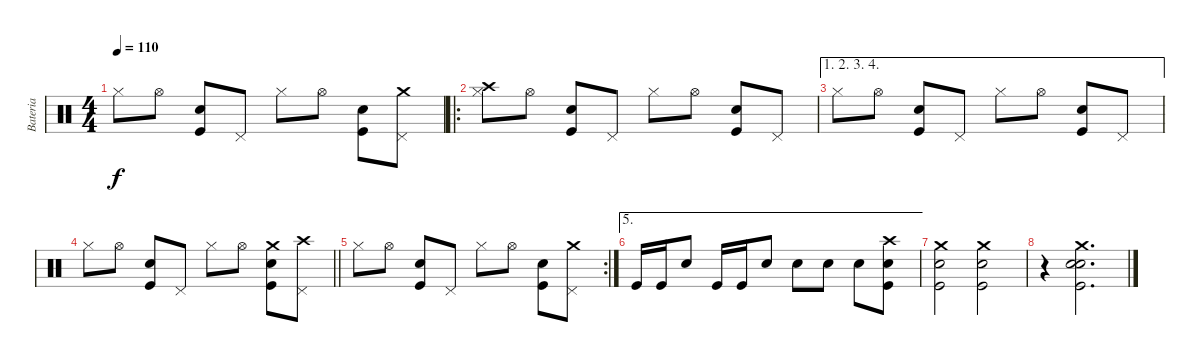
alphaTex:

\track ("Bateria" "Bateria") {instrument percussion}
\staff {score}
\articulation defaults
\ts (4 4)
\tempo 110
\clef neutral
\ks c "Hi-Hat (closed)".8{dy f} "Hi-Hat (open)".8
("Electric Snare (hit)" "Kick (hit)").8 "Pedal Hi-Hat (hit)".8 "Hi-Hat (closed)".8 "Hi-Hat (open)".8 ("Electric Snare (hit)" "Kick (hit)").8 ("Crash medium (hit)" "Pedal Hi-Hat (hit)").8 |
\ro
("Crash high (hit)" "Hi-Hat (closed)").8 "Hi-Hat (open)".8 ("Electric Snare (hit)" "Kick (hit)").8 "Pedal Hi-Hat (hit)".8 "Hi-Hat (closed)".8 "Hi-Hat (open)".8 ("Electric Snare (hit)" "Kick (hit)").8 "Pedal Hi-Hat (hit)".8 |
\ae (1 2 3 4)
"Hi-Hat (closed)".8 "Hi-Hat (open)".8 ("Electric Snare (hit)" "Kick (hit)").8 "Pedal Hi-Hat (hit)".8 "Hi-Hat (closed)".8 "Hi-Hat (open)".8 ("Electric Snare (hit)" "Kick (hit)").8 "Pedal Hi-Hat (hit)".8 |
\barLineRight lightlight "Hi-Hat (closed)".8 "Hi-Hat (open)".8
("Electric Snare (hit)" "Kick (hit)").8 "Pedal Hi-Hat (hit)".8 "Hi-Hat (closed)".8 "Hi-Hat (open)".8 ("Crash medium (hit)" "Electric Snare (hit)" "Kick (hit)").8 ("Crash high (hit)" "Pedal Hi-Hat (hit)").8 |
\rc 2 "Hi-Hat (closed)".8 "Hi-Hat (open)".8
("Electric Snare (hit)" "Kick (hit)").8 "Pedal Hi-Hat (hit)".8 "Hi-Hat (closed)".8 "Hi-Hat (open)".8 ("Electric Snare (hit)" "Kick (hit)").8 ("Crash medium (hit)" "Pedal Hi-Hat (hit)").8 |
\ae 5 "Kick (hit)".16 "Kick (hit)".16 "Electric Snare (hit)".8 "Kick (hit)".16 "Kick (hit)".16 "Electric Snare (hit)".8 "Electric Snare (hit)".8 "Electric Snare (hit)".8 "Electric Snare (hit)".8
("Crash high (hit)" "Electric Snare (hit)" "Kick (hit)").8 |
("Crash medium (hit)" "Electric Snare (hit)" "Kick (hit)").2 ("Crash medium (hit)" "Electric Snare (hit)" "Kick (hit)").2 |
r.4 ("Crash medium (hit)" "Snare (hit) 2" "Electric Snare (hit)" "Kick (hit)").2{d}
